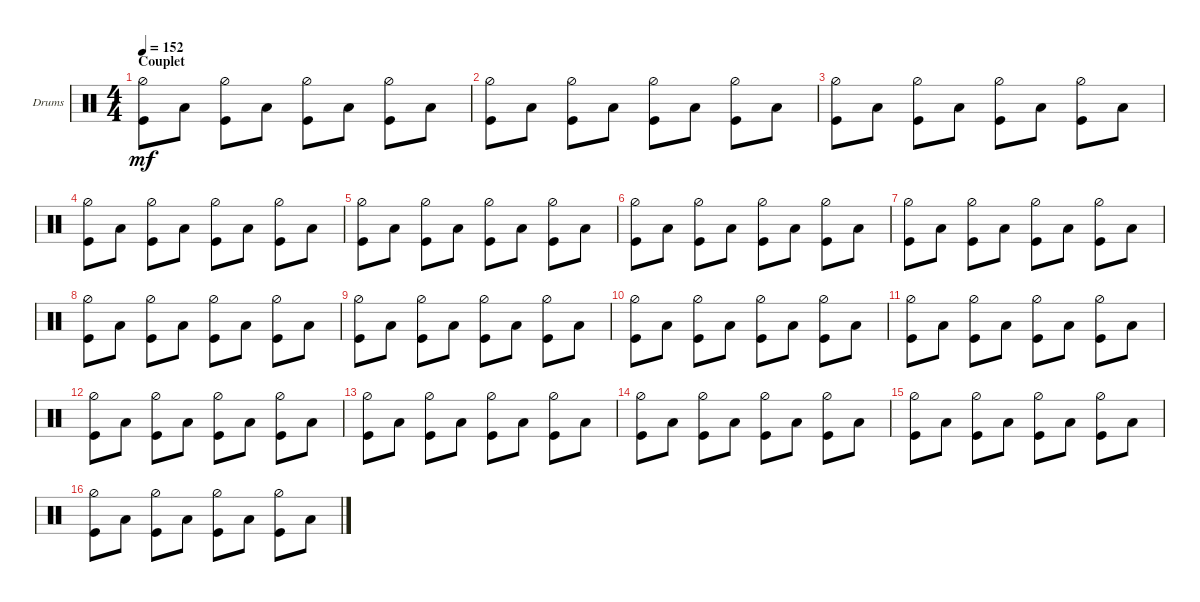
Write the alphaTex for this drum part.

\defaultSystemsLayout 4
\bracketExtendMode groupsimilarinstruments
\firstSystemTrackNameOrientation horizontal
\otherSystemsTrackNameOrientation horizontal
\track ("Dre Drum" "Drums") {instrument percussion}
\staff {score}
\articulation defaults
\ts (4 4)
\section ("" "Couplet")
\tempo 152
\clef neutral
\ks c
("Kick (hit)" "Hi-Hat (half)").8{dy mf} "Low Tom (hit)".8 ("Kick (hit)" "Hi-Hat (half)").8 "Low Tom (hit)".8 ("Kick (hit)" "Hi-Hat (half)").8 "Low Tom (hit)".8 ("Kick (hit)" "Hi-Hat (half)").8 "Low Tom (hit)".8 |
("Kick (hit)" "Hi-Hat (half)").8 "Low Tom (hit)".8 ("Kick (hit)" "Hi-Hat (half)").8 "Low Tom (hit)".8 ("Kick (hit)" "Hi-Hat (half)").8 "Low Tom (hit)".8 ("Kick (hit)" "Hi-Hat (half)").8 "Low Tom (hit)".8 |
("Kick (hit)" "Hi-Hat (half)").8 "Low Tom (hit)".8 ("Kick (hit)" "Hi-Hat (half)").8 "Low Tom (hit)".8 ("Kick (hit)" "Hi-Hat (half)").8 "Low Tom (hit)".8 ("Kick (hit)" "Hi-Hat (half)").8 "Low Tom (hit)".8 |
("Kick (hit)" "Hi-Hat (half)").8 "Low Tom (hit)".8 ("Kick (hit)" "Hi-Hat (half)").8 "Low Tom (hit)".8 ("Kick (hit)" "Hi-Hat (half)").8 "Low Tom (hit)".8 ("Kick (hit)" "Hi-Hat (half)").8 "Low Tom (hit)".8 |
("Kick (hit)" "Hi-Hat (half)").8 "Low Tom (hit)".8 ("Kick (hit)" "Hi-Hat (half)").8 "Low Tom (hit)".8 ("Kick (hit)" "Hi-Hat (half)").8 "Low Tom (hit)".8 ("Kick (hit)" "Hi-Hat (half)").8 "Low Tom (hit)".8 |
("Kick (hit)" "Hi-Hat (half)").8 "Low Tom (hit)".8 ("Kick (hit)" "Hi-Hat (half)").8 "Low Tom (hit)".8 ("Kick (hit)" "Hi-Hat (half)").8 "Low Tom (hit)".8 ("Kick (hit)" "Hi-Hat (half)").8 "Low Tom (hit)".8 |
("Kick (hit)" "Hi-Hat (half)").8 "Low Tom (hit)".8 ("Kick (hit)" "Hi-Hat (half)").8 "Low Tom (hit)".8 ("Kick (hit)" "Hi-Hat (half)").8 "Low Tom (hit)".8 ("Kick (hit)" "Hi-Hat (half)").8 "Low Tom (hit)".8 |
("Kick (hit)" "Hi-Hat (half)").8 "Low Tom (hit)".8 ("Kick (hit)" "Hi-Hat (half)").8 "Low Tom (hit)".8 ("Kick (hit)" "Hi-Hat (half)").8 "Low Tom (hit)".8 ("Kick (hit)" "Hi-Hat (half)").8 "Low Tom (hit)".8 |
("Kick (hit)" "Hi-Hat (half)").8 "Low Tom (hit)".8 ("Kick (hit)" "Hi-Hat (half)").8 "Low Tom (hit)".8 ("Kick (hit)" "Hi-Hat (half)").8 "Low Tom (hit)".8 ("Kick (hit)" "Hi-Hat (half)").8 "Low Tom (hit)".8 |
("Kick (hit)" "Hi-Hat (half)").8 "Low Tom (hit)".8 ("Kick (hit)" "Hi-Hat (half)").8 "Low Tom (hit)".8 ("Kick (hit)" "Hi-Hat (half)").8 "Low Tom (hit)".8 ("Kick (hit)" "Hi-Hat (half)").8 "Low Tom (hit)".8 |
("Kick (hit)" "Hi-Hat (half)").8 "Low Tom (hit)".8 ("Kick (hit)" "Hi-Hat (half)").8 "Low Tom (hit)".8 ("Kick (hit)" "Hi-Hat (half)").8 "Low Tom (hit)".8 ("Kick (hit)" "Hi-Hat (half)").8 "Low Tom (hit)".8 |
("Kick (hit)" "Hi-Hat (half)").8 "Low Tom (hit)".8 ("Kick (hit)" "Hi-Hat (half)").8 "Low Tom (hit)".8 ("Kick (hit)" "Hi-Hat (half)").8 "Low Tom (hit)".8 ("Kick (hit)" "Hi-Hat (half)").8 "Low Tom (hit)".8 |
("Kick (hit)" "Hi-Hat (half)").8 "Low Tom (hit)".8 ("Kick (hit)" "Hi-Hat (half)").8 "Low Tom (hit)".8 ("Kick (hit)" "Hi-Hat (half)").8 "Low Tom (hit)".8 ("Kick (hit)" "Hi-Hat (half)").8 "Low Tom (hit)".8 |
("Kick (hit)" "Hi-Hat (half)").8 "Low Tom (hit)".8 ("Kick (hit)" "Hi-Hat (half)").8 "Low Tom (hit)".8 ("Kick (hit)" "Hi-Hat (half)").8 "Low Tom (hit)".8 ("Kick (hit)" "Hi-Hat (half)").8 "Low Tom (hit)".8 |
("Kick (hit)" "Hi-Hat (half)").8 "Low Tom (hit)".8 ("Kick (hit)" "Hi-Hat (half)").8 "Low Tom (hit)".8 ("Kick (hit)" "Hi-Hat (half)").8 "Low Tom (hit)".8 ("Kick (hit)" "Hi-Hat (half)").8 "Low Tom (hit)".8 |
("Kick (hit)" "Hi-Hat (half)").8 "Low Tom (hit)".8 ("Kick (hit)" "Hi-Hat (half)").8 "Low Tom (hit)".8 ("Kick (hit)" "Hi-Hat (half)").8 "Low Tom (hit)".8 ("Kick (hit)" "Hi-Hat (half)").8 "Low Tom (hit)".8
